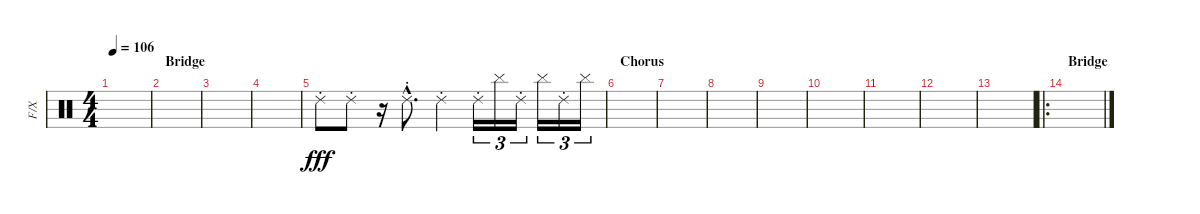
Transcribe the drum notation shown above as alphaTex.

\track ("F/X" "F/X") {instrument percussion}
\staff {score}
\articulation defaults
\ts (4 4)
\tempo 106
\clef neutral
\ks c
|
\section ("" "Bridge")
|
|
|
"Ride (choke) 2".8{dy fff} "Ride (choke) 2".8 r.16 "Ride (choke) 2"{hac}.8{d} "Ride (choke) 2".4 "Ride (choke) 2".16{tu (3 2)} "Cymbal (hit)".16{tu (3 2)} "Ride (choke) 2".16{tu (3 2)} "Cymbal (hit)".16{tu (3 2)} "Ride (choke) 2".16{tu (3 2)} "Cymbal (hit)".16{tu (3 2)} |
\section ("" "Chorus")
|
|
|
|
|
|
|
|
\ro
\section ("" "Bridge")
